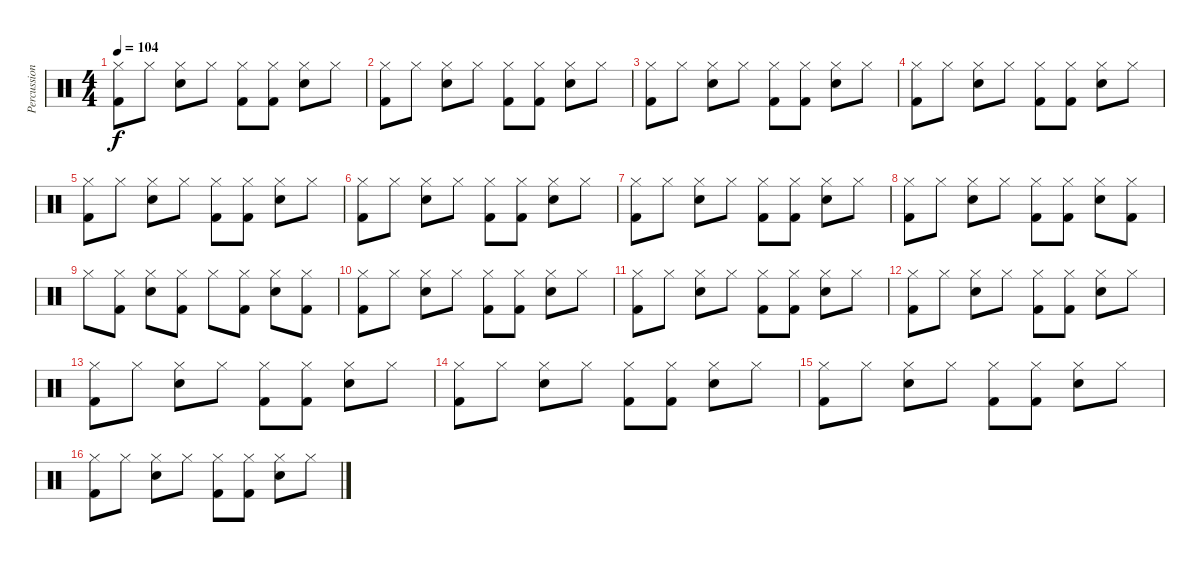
\track ("Percussions" "Percussion") {instrument percussion}
\staff {score}
\articulation defaults
\ts (4 4)
\tempo 104
\clef neutral
\ks c
("Hi-Hat (closed)" "Kick (hit) 2").8{dy f} "Hi-Hat (closed)".8 ("Hi-Hat (closed)" "Snare (hit) 2").8 "Hi-Hat (closed)".8 ("Hi-Hat (closed)" "Kick (hit) 2").8 ("Hi-Hat (closed)" "Kick (hit) 2").8 ("Hi-Hat (closed)" "Snare (hit) 2").8 "Hi-Hat (closed)".8 |
("Hi-Hat (closed)" "Kick (hit) 2").8 "Hi-Hat (closed)".8 ("Hi-Hat (closed)" "Snare (hit) 2").8 "Hi-Hat (closed)".8 ("Hi-Hat (closed)" "Kick (hit) 2").8 ("Hi-Hat (closed)" "Kick (hit) 2").8 ("Hi-Hat (closed)" "Snare (hit) 2").8 "Hi-Hat (closed)".8 |
("Hi-Hat (closed)" "Kick (hit) 2").8 "Hi-Hat (closed)".8 ("Hi-Hat (closed)" "Snare (hit) 2").8 "Hi-Hat (closed)".8 ("Hi-Hat (closed)" "Kick (hit) 2").8 ("Hi-Hat (closed)" "Kick (hit) 2").8 ("Hi-Hat (closed)" "Snare (hit) 2").8 "Hi-Hat (closed)".8 |
("Hi-Hat (closed)" "Kick (hit) 2").8 "Hi-Hat (closed)".8 ("Hi-Hat (closed)" "Snare (hit) 2").8 "Hi-Hat (closed)".8 ("Hi-Hat (closed)" "Kick (hit) 2").8 ("Hi-Hat (closed)" "Kick (hit) 2").8 ("Hi-Hat (closed)" "Snare (hit) 2").8 "Hi-Hat (closed)".8 |
("Hi-Hat (closed)" "Kick (hit) 2").8 "Hi-Hat (closed)".8 ("Hi-Hat (closed)" "Snare (hit) 2").8 "Hi-Hat (closed)".8 ("Hi-Hat (closed)" "Kick (hit) 2").8 ("Hi-Hat (closed)" "Kick (hit) 2").8 ("Hi-Hat (closed)" "Snare (hit) 2").8 "Hi-Hat (closed)".8 |
("Hi-Hat (closed)" "Kick (hit) 2").8 "Hi-Hat (closed)".8 ("Hi-Hat (closed)" "Snare (hit) 2").8 "Hi-Hat (closed)".8 ("Hi-Hat (closed)" "Kick (hit) 2").8 ("Hi-Hat (closed)" "Kick (hit) 2").8 ("Hi-Hat (closed)" "Snare (hit) 2").8 "Hi-Hat (closed)".8 |
("Hi-Hat (closed)" "Kick (hit) 2").8 "Hi-Hat (closed)".8 ("Hi-Hat (closed)" "Snare (hit) 2").8 "Hi-Hat (closed)".8 ("Hi-Hat (closed)" "Kick (hit) 2").8 ("Hi-Hat (closed)" "Kick (hit) 2").8 ("Hi-Hat (closed)" "Snare (hit) 2").8 "Hi-Hat (closed)".8 |
("Hi-Hat (closed)" "Kick (hit) 2").8 "Hi-Hat (closed)".8 ("Hi-Hat (closed)" "Snare (hit) 2").8 "Hi-Hat (closed)".8 ("Hi-Hat (closed)" "Kick (hit) 2").8 ("Hi-Hat (closed)" "Kick (hit) 2").8 ("Hi-Hat (closed)" "Snare (hit) 2").8 ("Hi-Hat (closed)" "Kick (hit) 2").8 |
"Hi-Hat (closed)".8 ("Hi-Hat (closed)" "Kick (hit) 2").8 ("Hi-Hat (closed)" "Snare (hit) 2").8 ("Hi-Hat (closed)" "Kick (hit) 2").8 "Hi-Hat (closed)".8 ("Hi-Hat (closed)" "Kick (hit) 2").8 ("Hi-Hat (closed)" "Snare (hit) 2").8 ("Hi-Hat (closed)" "Kick (hit) 2").8 |
("Hi-Hat (closed)" "Kick (hit) 2").8 "Hi-Hat (closed)".8 ("Hi-Hat (closed)" "Snare (hit) 2").8 "Hi-Hat (closed)".8 ("Hi-Hat (closed)" "Kick (hit) 2").8 ("Hi-Hat (closed)" "Kick (hit) 2").8 ("Hi-Hat (closed)" "Snare (hit) 2").8 "Hi-Hat (closed)".8 |
("Hi-Hat (closed)" "Kick (hit) 2").8 "Hi-Hat (closed)".8 ("Hi-Hat (closed)" "Snare (hit) 2").8 "Hi-Hat (closed)".8 ("Hi-Hat (closed)" "Kick (hit) 2").8 ("Hi-Hat (closed)" "Kick (hit) 2").8 ("Hi-Hat (closed)" "Snare (hit) 2").8 "Hi-Hat (closed)".8 |
("Hi-Hat (closed)" "Kick (hit) 2").8 "Hi-Hat (closed)".8 ("Hi-Hat (closed)" "Snare (hit) 2").8 "Hi-Hat (closed)".8 ("Hi-Hat (closed)" "Kick (hit) 2").8 ("Hi-Hat (closed)" "Kick (hit) 2").8 ("Hi-Hat (closed)" "Snare (hit) 2").8 "Hi-Hat (closed)".8 |
("Hi-Hat (closed)" "Kick (hit) 2").8 "Hi-Hat (closed)".8 ("Hi-Hat (closed)" "Snare (hit) 2").8 "Hi-Hat (closed)".8 ("Hi-Hat (closed)" "Kick (hit) 2").8 ("Hi-Hat (closed)" "Kick (hit) 2").8 ("Hi-Hat (closed)" "Snare (hit) 2").8 "Hi-Hat (closed)".8 |
("Hi-Hat (closed)" "Kick (hit) 2").8{volume 9} "Hi-Hat (closed)".8 ("Hi-Hat (closed)" "Snare (hit) 2").8 "Hi-Hat (closed)".8 ("Hi-Hat (closed)" "Kick (hit) 2").8 ("Hi-Hat (closed)" "Kick (hit) 2").8 ("Hi-Hat (closed)" "Snare (hit) 2").8 "Hi-Hat (closed)".8 |
("Hi-Hat (closed)" "Kick (hit) 2").8 "Hi-Hat (closed)".8 ("Hi-Hat (closed)" "Snare (hit) 2").8 "Hi-Hat (closed)".8 ("Hi-Hat (closed)" "Kick (hit) 2").8 ("Hi-Hat (closed)" "Kick (hit) 2").8 ("Hi-Hat (closed)" "Snare (hit) 2").8 "Hi-Hat (closed)".8 |
("Hi-Hat (closed)" "Kick (hit) 2").8 "Hi-Hat (closed)".8 ("Hi-Hat (closed)" "Snare (hit) 2").8 "Hi-Hat (closed)".8 ("Hi-Hat (closed)" "Kick (hit) 2").8 ("Hi-Hat (closed)" "Kick (hit) 2").8 ("Hi-Hat (closed)" "Snare (hit) 2").8 "Hi-Hat (closed)".8
